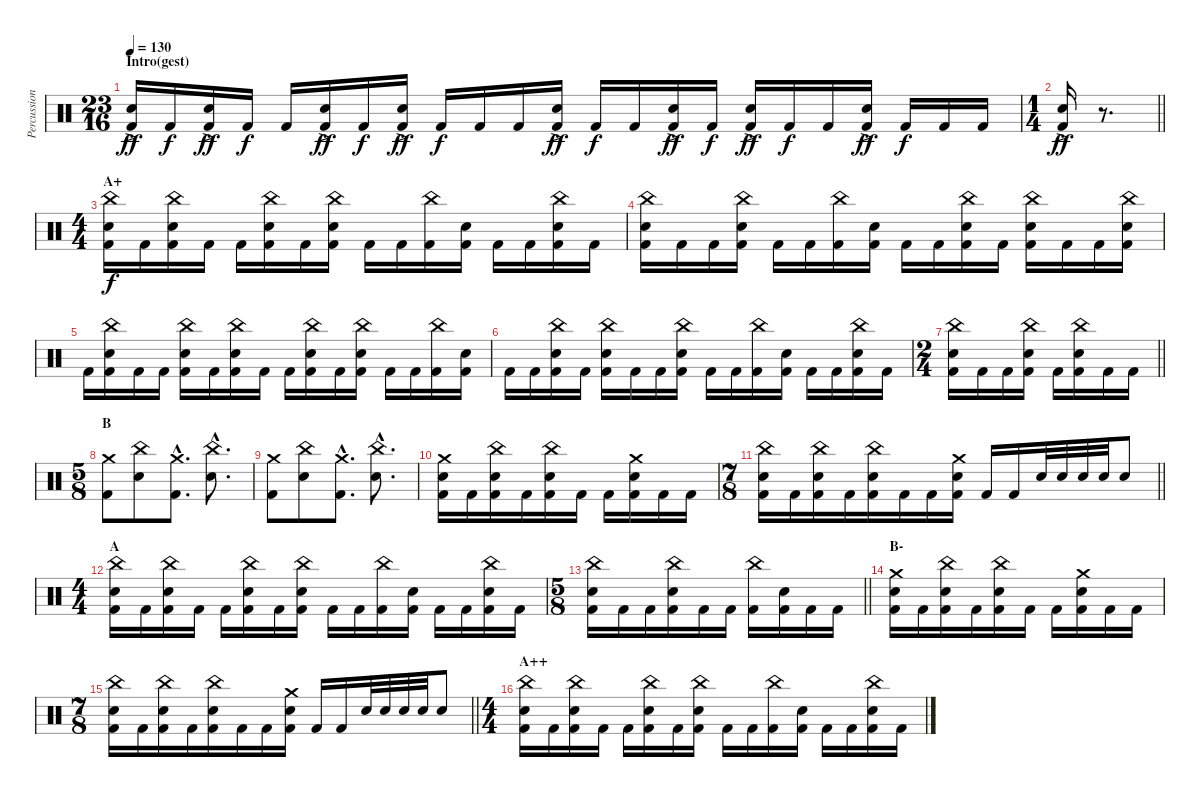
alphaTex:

\track ("Percussion" "Percussion") {instrument percussion}
\staff {score}
\articulation defaults
\ts (23 16)
\section ("" "Intro(gest)")
\tempo 130
\clef neutral
\ks c
("Electric Snare (hit)"{ac} "Kick (hit) 2").16{dy ff} "Kick (hit) 2".16{dy f} ("Electric Snare (hit)"{ac} "Kick (hit) 2").16{dy ff} "Kick (hit) 2".16{dy f} "Kick (hit) 2".16 ("Electric Snare (hit)"{ac} "Kick (hit) 2").16{dy ff} "Kick (hit) 2".16{dy f} ("Electric Snare (hit)"{ac} "Kick (hit) 2").16{dy ff} "Kick (hit) 2".16{dy f} "Kick (hit) 2".16 "Kick (hit) 2".16 ("Electric Snare (hit)"{ac} "Kick (hit) 2").16{dy ff} "Kick (hit) 2".16{dy f} "Kick (hit) 2".16 ("Electric Snare (hit)"{ac} "Kick (hit) 2").16{dy ff} "Kick (hit) 2".16{dy f} ("Electric Snare (hit)"{ac} "Kick (hit) 2").16{dy ff} "Kick (hit) 2".16{dy f} "Kick (hit) 2".16 ("Electric Snare (hit)"{ac} "Kick (hit) 2").16{dy ff} "Kick (hit) 2".16{dy f} "Kick (hit) 2".16 "Kick (hit) 2".16 |
\ts (1 4)
\barLineRight lightlight
("Electric Snare (hit)"{ac} "Kick (hit) 2").16{dy ff} r.8{d} |
\ts (4 4)
\section ("" "A+")
("China (hit)" "Electric Snare (hit)" "Kick (hit) 2").16{dy f} "Kick (hit) 2".16 ("China (hit)" "Electric Snare (hit)" "Kick (hit) 2").16 "Kick (hit) 2".16 "Kick (hit) 2".16 ("China (hit)" "Electric Snare (hit)" "Kick (hit) 2").16 "Kick (hit) 2".16 ("China (hit)" "Electric Snare (hit)" "Kick (hit) 2").16 "Kick (hit) 2".16 "Kick (hit) 2".16 ("China (hit)" "Kick (hit) 2").16 ("Electric Snare (hit)" "Kick (hit) 2").16 "Kick (hit) 2".16 "Kick (hit) 2".16 ("China (hit)" "Electric Snare (hit)" "Kick (hit) 2").16 "Kick (hit) 2".16 |
("China (hit)" "Electric Snare (hit)" "Kick (hit) 2").16 "Kick (hit) 2".16 "Kick (hit) 2".16 ("China (hit)" "Electric Snare (hit)" "Kick (hit) 2").16 "Kick (hit) 2".16 "Kick (hit) 2".16 ("China (hit)" "Kick (hit) 2").16 ("Electric Snare (hit)" "Kick (hit) 2").16 "Kick (hit) 2".16 "Kick (hit) 2".16 ("China (hit)" "Electric Snare (hit)" "Kick (hit) 2").16 "Kick (hit) 2".16 ("China (hit)" "Electric Snare (hit)" "Kick (hit) 2").16 "Kick (hit) 2".16 "Kick (hit) 2".16 ("China (hit)" "Electric Snare (hit)" "Kick (hit) 2").16 |
"Kick (hit) 2".16 ("China (hit)" "Electric Snare (hit)" "Kick (hit) 2").16 "Kick (hit) 2".16 "Kick (hit) 2".16 ("China (hit)" "Electric Snare (hit)" "Kick (hit) 2").16 "Kick (hit) 2".16 ("China (hit)" "Electric Snare (hit)" "Kick (hit) 2").16 "Kick (hit) 2".16 "Kick (hit) 2".16 ("China (hit)" "Electric Snare (hit)" "Kick (hit) 2").16 "Kick (hit) 2".16 ("China (hit)" "Electric Snare (hit)" "Kick (hit) 2").16 "Kick (hit) 2".16 "Kick (hit) 2".16 ("China (hit)" "Kick (hit) 2").16 ("Electric Snare (hit)" "Kick (hit) 2").16 |
"Kick (hit) 2".16 "Kick (hit) 2".16 ("China (hit)" "Electric Snare (hit)" "Kick (hit) 2").16 "Kick (hit) 2".16 ("China (hit)" "Electric Snare (hit)" "Kick (hit) 2").16 "Kick (hit) 2".16 "Kick (hit) 2".16 ("China (hit)" "Electric Snare (hit)" "Kick (hit) 2").16 "Kick (hit) 2".16 "Kick (hit) 2".16 ("China (hit)" "Kick (hit) 2").16 ("Electric Snare (hit)" "Kick (hit) 2").16 "Kick (hit) 2".16 "Kick (hit) 2".16 ("China (hit)" "Electric Snare (hit)" "Kick (hit) 2").16 "Kick (hit) 2".16 |
\ts (2 4)
\barLineRight lightlight
("China (hit)" "Electric Snare (hit)" "Kick (hit) 2").16 "Kick (hit) 2".16 "Kick (hit) 2".16 ("China (hit)" "Electric Snare (hit)" "Kick (hit) 2").16 "Kick (hit) 2".16 ("China (hit)" "Electric Snare (hit)" "Kick (hit) 2").16 "Kick (hit) 2".16 "Kick (hit) 2".16 |
\ts (5 8)
\section ("" "B")
("Crash medium (hit)" "Kick (hit) 2").8 ("China (hit)" "Electric Snare (hit)").8 ("Crash medium (hit)"{hac} "Kick (hit) 2"{hac}).8{d} ("China (hit)"{hac} "Electric Snare (hit)"{hac}).8{d} |
("Crash medium (hit)" "Kick (hit) 2").8 ("China (hit)" "Electric Snare (hit)").8 ("Crash medium (hit)"{hac} "Kick (hit) 2"{hac}).8{d} ("China (hit)"{hac} "Electric Snare (hit)"{hac}).8{d} |
("Crash medium (hit)" "Electric Snare (hit)" "Kick (hit) 2").16 "Kick (hit) 2".16 ("China (hit)" "Electric Snare (hit)" "Kick (hit) 2").16 "Kick (hit) 2".16 ("China (hit)" "Electric Snare (hit)" "Kick (hit) 2").16 "Kick (hit) 2".16 "Kick (hit) 2".16 ("Crash medium (hit)" "Electric Snare (hit)" "Kick (hit) 2").16 "Kick (hit) 2".16 "Kick (hit) 2".16 |
\ts (7 8)
\barLineRight lightlight
("China (hit)" "Electric Snare (hit)" "Kick (hit) 2").16 "Kick (hit) 2".16 ("China (hit)" "Electric Snare (hit)" "Kick (hit) 2").16 "Kick (hit) 2".16 ("China (hit)" "Electric Snare (hit)" "Kick (hit) 2").16 "Kick (hit) 2".16 "Kick (hit) 2".16 ("Crash medium (hit)" "Electric Snare (hit)" "Kick (hit) 2").16 "Kick (hit) 2".16 "Kick (hit) 2".16 "Electric Snare (hit)".32 "Electric Snare (hit)".32 "Electric Snare (hit)".32 "Electric Snare (hit)".32 "Electric Snare (hit)".8 |
\ts (4 4)
\section ("" "A")
("China (hit)" "Electric Snare (hit)" "Kick (hit) 2").16 "Kick (hit) 2".16 ("China (hit)" "Electric Snare (hit)" "Kick (hit) 2").16 "Kick (hit) 2".16 "Kick (hit) 2".16 ("China (hit)" "Electric Snare (hit)" "Kick (hit) 2").16 "Kick (hit) 2".16 ("China (hit)" "Electric Snare (hit)" "Kick (hit) 2").16 "Kick (hit) 2".16 "Kick (hit) 2".16 ("China (hit)" "Kick (hit) 2").16 ("Electric Snare (hit)" "Kick (hit) 2").16 "Kick (hit) 2".16 "Kick (hit) 2".16 ("China (hit)" "Electric Snare (hit)" "Kick (hit) 2").16 "Kick (hit) 2".16 |
\ts (5 8)
\barLineRight lightlight
("China (hit)" "Electric Snare (hit)" "Kick (hit) 2").16 "Kick (hit) 2".16 "Kick (hit) 2".16 ("China (hit)" "Electric Snare (hit)" "Kick (hit) 2").16 "Kick (hit) 2".16 "Kick (hit) 2".16 ("China (hit)" "Kick (hit) 2").16 ("Electric Snare (hit)" "Kick (hit) 2").16 "Kick (hit) 2".16 "Kick (hit) 2".16 |
\section ("" "B-")
("Crash medium (hit)" "Electric Snare (hit)" "Kick (hit) 2").16 "Kick (hit) 2".16 ("China (hit)" "Electric Snare (hit)" "Kick (hit) 2").16 "Kick (hit) 2".16 ("China (hit)" "Electric Snare (hit)" "Kick (hit) 2").16 "Kick (hit) 2".16 "Kick (hit) 2".16 ("Crash medium (hit)" "Electric Snare (hit)" "Kick (hit) 2").16 "Kick (hit) 2".16 "Kick (hit) 2".16 |
\ts (7 8)
\barLineRight lightlight
("China (hit)" "Electric Snare (hit)" "Kick (hit) 2").16 "Kick (hit) 2".16 ("China (hit)" "Electric Snare (hit)" "Kick (hit) 2").16 "Kick (hit) 2".16 ("China (hit)" "Electric Snare (hit)" "Kick (hit) 2").16 "Kick (hit) 2".16 "Kick (hit) 2".16 ("Crash medium (hit)" "Electric Snare (hit)" "Kick (hit) 2").16 "Kick (hit) 2".16 "Kick (hit) 2".16 "Electric Snare (hit)".32 "Electric Snare (hit)".32 "Electric Snare (hit)".32 "Electric Snare (hit)".32 "Electric Snare (hit)".8 |
\ts (4 4)
\section ("" "A++")
("China (hit)" "Electric Snare (hit)" "Kick (hit) 2").16 "Kick (hit) 2".16 ("China (hit)" "Electric Snare (hit)" "Kick (hit) 2").16 "Kick (hit) 2".16 "Kick (hit) 2".16 ("China (hit)" "Electric Snare (hit)" "Kick (hit) 2").16 "Kick (hit) 2".16 ("China (hit)" "Electric Snare (hit)" "Kick (hit) 2").16 "Kick (hit) 2".16 "Kick (hit) 2".16 ("China (hit)" "Kick (hit) 2").16 ("Electric Snare (hit)" "Kick (hit) 2").16 "Kick (hit) 2".16 "Kick (hit) 2".16 ("China (hit)" "Electric Snare (hit)" "Kick (hit) 2").16 "Kick (hit) 2".16
